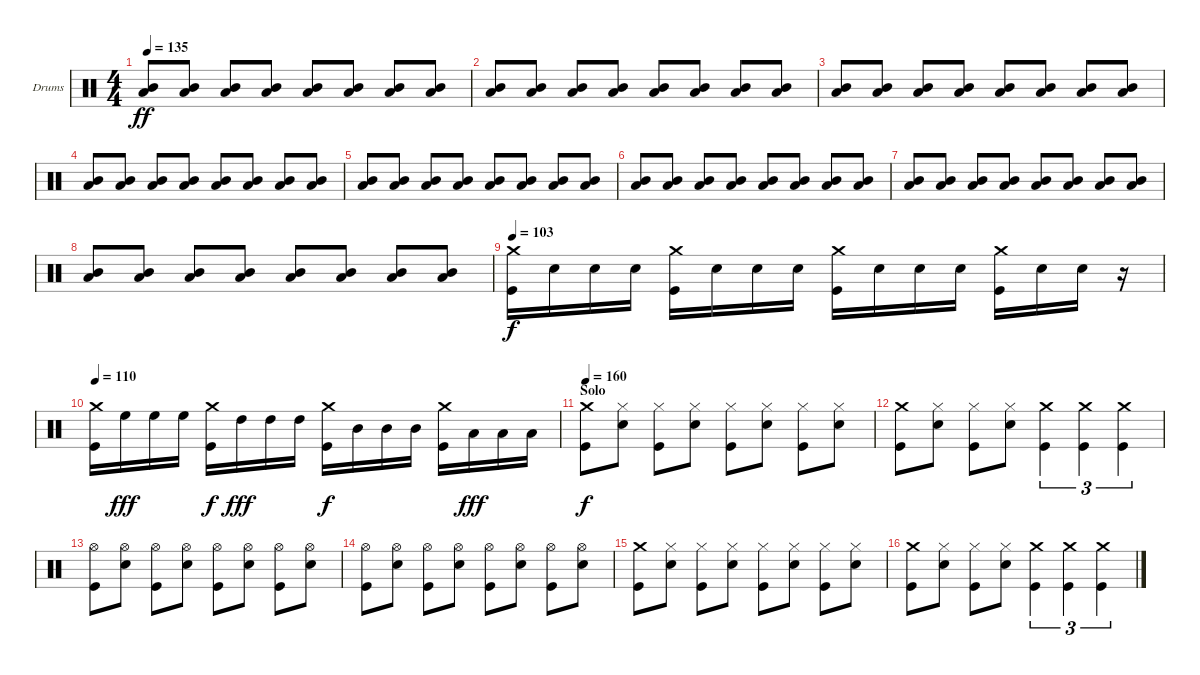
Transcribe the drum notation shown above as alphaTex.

\bracketExtendMode groupsimilarinstruments
\firstSystemTrackNameOrientation horizontal
\otherSystemsTrackNameOrientation horizontal
\track ("Drums" "Drums") {instrument percussion}
\staff {score}
\articulation defaults
\ts (4 4)
\tempo 135
\clef neutral
\ks c
("Low Tom (hit)" "Mid Tom (hit)").8{dy ff} ("Low Tom (hit)" "Mid Tom (hit)").8 ("Low Tom (hit)" "Mid Tom (hit)").8 ("Low Tom (hit)" "Mid Tom (hit)").8 ("Low Tom (hit)" "Mid Tom (hit)").8 ("Low Tom (hit)" "Mid Tom (hit)").8 ("Low Tom (hit)" "Mid Tom (hit)").8 ("Low Tom (hit)" "Mid Tom (hit)").8 |
("Low Tom (hit)" "Mid Tom (hit)").8 ("Low Tom (hit)" "Mid Tom (hit)").8 ("Low Tom (hit)" "Mid Tom (hit)").8 ("Low Tom (hit)" "Mid Tom (hit)").8 ("Low Tom (hit)" "Mid Tom (hit)").8 ("Low Tom (hit)" "Mid Tom (hit)").8 ("Low Tom (hit)" "Mid Tom (hit)").8 ("Low Tom (hit)" "Mid Tom (hit)").8 |
("Low Tom (hit)" "Mid Tom (hit)").8 ("Low Tom (hit)" "Mid Tom (hit)").8 ("Low Tom (hit)" "Mid Tom (hit)").8 ("Low Tom (hit)" "Mid Tom (hit)").8 ("Low Tom (hit)" "Mid Tom (hit)").8 ("Low Tom (hit)" "Mid Tom (hit)").8 ("Low Tom (hit)" "Mid Tom (hit)").8 ("Low Tom (hit)" "Mid Tom (hit)").8 |
("Low Tom (hit)" "Mid Tom (hit)").8 ("Low Tom (hit)" "Mid Tom (hit)").8 ("Low Tom (hit)" "Mid Tom (hit)").8 ("Low Tom (hit)" "Mid Tom (hit)").8 ("Low Tom (hit)" "Mid Tom (hit)").8 ("Low Tom (hit)" "Mid Tom (hit)").8 ("Low Tom (hit)" "Mid Tom (hit)").8 ("Low Tom (hit)" "Mid Tom (hit)").8 |
("Low Tom (hit)" "Mid Tom (hit)").8 ("Low Tom (hit)" "Mid Tom (hit)").8 ("Low Tom (hit)" "Mid Tom (hit)").8 ("Low Tom (hit)" "Mid Tom (hit)").8 ("Low Tom (hit)" "Mid Tom (hit)").8 ("Low Tom (hit)" "Mid Tom (hit)").8 ("Low Tom (hit)" "Mid Tom (hit)").8 ("Low Tom (hit)" "Mid Tom (hit)").8 |
("Low Tom (hit)" "Mid Tom (hit)").8 ("Low Tom (hit)" "Mid Tom (hit)").8 ("Low Tom (hit)" "Mid Tom (hit)").8 ("Low Tom (hit)" "Mid Tom (hit)").8 ("Low Tom (hit)" "Mid Tom (hit)").8 ("Low Tom (hit)" "Mid Tom (hit)").8 ("Low Tom (hit)" "Mid Tom (hit)").8 ("Low Tom (hit)" "Mid Tom (hit)").8 |
("Low Tom (hit)" "Mid Tom (hit)").8 ("Low Tom (hit)" "Mid Tom (hit)").8 ("Low Tom (hit)" "Mid Tom (hit)").8 ("Low Tom (hit)" "Mid Tom (hit)").8 ("Low Tom (hit)" "Mid Tom (hit)").8 ("Low Tom (hit)" "Mid Tom (hit)").8 ("Low Tom (hit)" "Mid Tom (hit)").8 ("Low Tom (hit)" "Mid Tom (hit)").8 |
("Low Tom (hit)" "Mid Tom (hit)").8 ("Low Tom (hit)" "Mid Tom (hit)").8 ("Low Tom (hit)" "Mid Tom (hit)").8 ("Low Tom (hit)" "Mid Tom (hit)").8 ("Low Tom (hit)" "Mid Tom (hit)").8 ("Low Tom (hit)" "Mid Tom (hit)").8 ("Low Tom (hit)" "Mid Tom (hit)").8 ("Low Tom (hit)" "Mid Tom (hit)").8 |
\tempo 103
("Crash medium (hit)" "Kick (hit)").16{dy f} "Snare (hit) 2".16 "Snare (hit) 2".16 "Snare (hit) 2".16 ("Crash medium (hit)" "Kick (hit)").16 "Snare (hit) 2".16 "Snare (hit) 2".16 "Snare (hit) 2".16 ("Crash medium (hit)" "Kick (hit)").16 "Snare (hit) 2".16 "Snare (hit) 2".16 "Snare (hit) 2".16 ("Crash medium (hit)" "Kick (hit)").16 "Snare (hit) 2".16 "Snare (hit) 2".16 r.16 |
\tempo 110
("Crash medium (hit)" "Kick (hit)").16 "High Floor Tom (hit)".16{dy fff} "High Floor Tom (hit)".16 "High Floor Tom (hit)".16 ("Crash medium (hit)" "Kick (hit)").16{dy f} "High Tom (hit)".16{dy fff} "High Tom (hit)".16 "High Tom (hit)".16 ("Crash medium (hit)" "Kick (hit)").16{dy f} "Mid Tom (hit)".16 "Mid Tom (hit)".16 "Mid Tom (hit)".16 ("Crash medium (hit)" "Kick (hit)").16 "Low Tom (hit)".16{dy fff} "Low Tom (hit)".16 "Low Tom (hit)".16 |
\section ("" "Solo")
\tempo 160
("Crash medium (hit)" "Kick (hit)").8{dy f} ("Hi-Hat (closed)" "Snare (hit) 2").8 ("Hi-Hat (closed)" "Kick (hit)").8 ("Hi-Hat (closed)" "Snare (hit) 2").8 ("Hi-Hat (closed)" "Kick (hit)").8 ("Hi-Hat (closed)" "Snare (hit) 2").8 ("Hi-Hat (closed)" "Kick (hit)").8 ("Hi-Hat (closed)" "Snare (hit) 2").8 |
("Crash medium (hit)" "Kick (hit)").8 ("Hi-Hat (closed)" "Snare (hit) 2").8 ("Hi-Hat (closed)" "Kick (hit)").8 ("Hi-Hat (closed)" "Snare (hit) 2").8 ("Crash medium (hit)" "Kick (hit)").4{tu (3 2)} ("Crash medium (hit)" "Kick (hit)").4{tu (3 2)} ("Crash medium (hit)" "Kick (hit)").4{tu (3 2)} |
("Hi-Hat (open)" "Kick (hit)").8 ("Hi-Hat (open)" "Snare (hit) 2").8 ("Hi-Hat (open)" "Kick (hit)").8 ("Hi-Hat (open)" "Snare (hit) 2").8 ("Hi-Hat (open)" "Kick (hit)").8 ("Hi-Hat (open)" "Snare (hit) 2").8 ("Hi-Hat (open)" "Kick (hit)").8 ("Hi-Hat (open)" "Snare (hit) 2").8 |
("Hi-Hat (open)" "Kick (hit)").8 ("Hi-Hat (open)" "Snare (hit) 2").8 ("Hi-Hat (open)" "Kick (hit)").8 ("Hi-Hat (open)" "Snare (hit) 2").8 ("Hi-Hat (open)" "Kick (hit)").8 ("Hi-Hat (open)" "Snare (hit) 2").8 ("Hi-Hat (open)" "Kick (hit)").8 ("Hi-Hat (open)" "Snare (hit) 2").8 |
("Crash medium (hit)" "Kick (hit)").8 ("Hi-Hat (closed)" "Snare (hit) 2").8 ("Hi-Hat (closed)" "Kick (hit)").8 ("Hi-Hat (closed)" "Snare (hit) 2").8 ("Hi-Hat (closed)" "Kick (hit)").8 ("Hi-Hat (closed)" "Snare (hit) 2").8 ("Hi-Hat (closed)" "Kick (hit)").8 ("Hi-Hat (closed)" "Snare (hit) 2").8 |
("Crash medium (hit)" "Kick (hit)").8 ("Hi-Hat (closed)" "Snare (hit) 2").8 ("Hi-Hat (closed)" "Kick (hit)").8 ("Hi-Hat (closed)" "Snare (hit) 2").8 ("Crash medium (hit)" "Kick (hit)").4{tu (3 2)} ("Crash medium (hit)" "Kick (hit)").4{tu (3 2)} ("Crash medium (hit)" "Kick (hit)").4{tu (3 2)}
